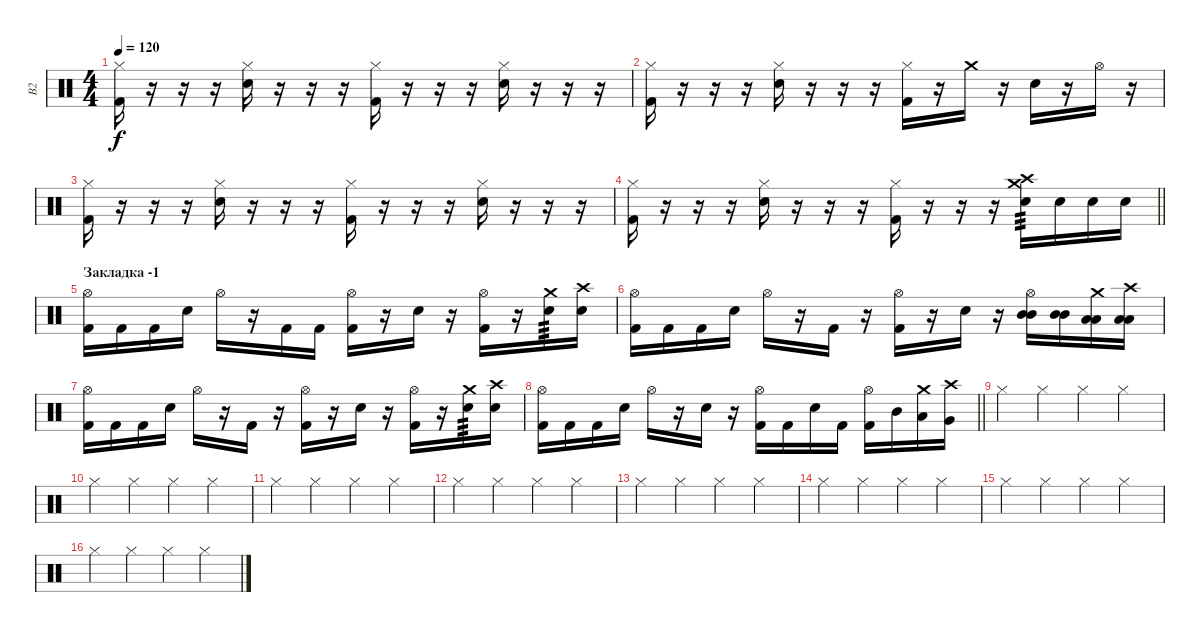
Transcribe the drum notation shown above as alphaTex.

\track ("В2" "В2") {instrument percussion}
\staff {score}
\articulation defaults
\ts (4 4)
\tempo 120
\clef neutral
\ks c
("Hi-Hat (closed)" "Kick (hit) 2").16{dy f} r.16 r.16 r.16 ("Hi-Hat (closed)" "Snare (hit) 2").16 r.16 r.16 r.16 ("Hi-Hat (closed)" "Kick (hit) 2").16 r.16 r.16 r.16 ("Hi-Hat (closed)" "Snare (hit) 2").16 r.16 r.16 r.16 |
("Hi-Hat (closed)" "Kick (hit) 2").16 r.16 r.16 r.16 ("Hi-Hat (closed)" "Snare (hit) 2").16 r.16 r.16 r.16 ("Hi-Hat (closed)" "Kick (hit) 2").16 r.16 "Crash medium (hit)".16 r.16 "Snare (hit) 2".16 r.16 "Hi-Hat (open)".16 r.16 |
("Hi-Hat (closed)" "Kick (hit) 2").16 r.16 r.16 r.16 ("Hi-Hat (closed)" "Snare (hit) 2").16 r.16 r.16 r.16 ("Hi-Hat (closed)" "Kick (hit) 2").16 r.16 r.16 r.16 ("Hi-Hat (closed)" "Snare (hit) 2").16 r.16 r.16 r.16 |
\barLineRight lightlight
("Hi-Hat (closed)" "Kick (hit) 2").16 r.16 r.16 r.16 ("Hi-Hat (closed)" "Snare (hit) 2").16 r.16 r.16 r.16 ("Hi-Hat (closed)" "Kick (hit) 2").16 r.16 r.16 r.16 ("Crash medium (hit)" "Crash high (hit)" "Snare (hit) 2").16{tp 3} "Snare (hit) 2".16 "Snare (hit) 2".16 "Snare (hit) 2".16 |
\section ("" "Закладка -1")
("Hi-Hat (open)" "Kick (hit) 2").16 "Kick (hit) 2".16 "Kick (hit) 2".16 "Snare (hit) 2".16 "Hi-Hat (open)".16 r.16 "Kick (hit) 2".16 "Kick (hit) 2".16 ("Hi-Hat (open)" "Kick (hit) 2").16 r.16 "Snare (hit) 2".16 r.16 ("Hi-Hat (open)" "Kick (hit) 2").16 r.16 ("Crash medium (hit)" "Snare (hit) 2").16{tp 3} ("Crash high (hit)" "Snare (hit) 2").16 |
("Hi-Hat (open)" "Kick (hit) 2").16 "Kick (hit) 2".16 "Kick (hit) 2".16 "Snare (hit) 2".16 "Hi-Hat (open)".16 r.16 "Kick (hit) 2".16 r.16 ("Hi-Hat (open)" "Kick (hit) 2").16 r.16 "Snare (hit) 2".16 r.16 ("Hi-Hat (open)" "Mid Tom (hit)" "Mid Tom (hit)").16 ("Mid Tom (hit)" "Mid Tom (hit)").16 ("Crash medium (hit)" "Low Tom (hit)" "Low Tom (hit)").16 ("Crash high (hit)" "Low Tom (hit)" "Low Tom (hit)").16 |
("Hi-Hat (open)" "Kick (hit) 2").16 "Kick (hit) 2".16 "Kick (hit) 2".16 "Snare (hit) 2".16 "Hi-Hat (open)".16 r.16 "Kick (hit) 2".16 r.16 ("Hi-Hat (open)" "Kick (hit) 2").16 r.16 "Snare (hit) 2".16 r.16 ("Hi-Hat (open)" "Kick (hit) 2").16 r.16 ("Crash medium (hit)" "Snare (hit) 2").16{tp 3} ("Crash high (hit)" "Snare (hit) 2").16 |
\barLineRight lightlight
("Hi-Hat (open)" "Kick (hit) 2").16 "Kick (hit) 2".16 "Kick (hit) 2".16 "Snare (hit) 2".16 "Hi-Hat (open)".16 r.16 "Snare (hit) 2".16 r.16 ("Hi-Hat (open)" "Kick (hit) 2").16 "Kick (hit) 2".16 "Snare (hit) 2".16 "Kick (hit) 2".16 ("Hi-Hat (open)" "Kick (hit) 2").16 "Mid Tom (hit)".16 ("Crash medium (hit)" "Low Tom (hit)").16 ("Crash high (hit)" "Very Low Tom (hit)").16 |
"Hi-Hat (closed)".4 "Hi-Hat (closed)".4 "Hi-Hat (closed)".4 "Hi-Hat (closed)".4 |
"Hi-Hat (closed)".4 "Hi-Hat (closed)".4 "Hi-Hat (closed)".4 "Hi-Hat (closed)".4 |
"Hi-Hat (closed)".4 "Hi-Hat (closed)".4 "Hi-Hat (closed)".4 "Hi-Hat (closed)".4 |
"Hi-Hat (closed)".4 "Hi-Hat (closed)".4 "Hi-Hat (closed)".4 "Hi-Hat (closed)".4 |
"Hi-Hat (closed)".4 "Hi-Hat (closed)".4 "Hi-Hat (closed)".4 "Hi-Hat (closed)".4 |
"Hi-Hat (closed)".4 "Hi-Hat (closed)".4 "Hi-Hat (closed)".4 "Hi-Hat (closed)".4 |
"Hi-Hat (closed)".4 "Hi-Hat (closed)".4 "Hi-Hat (closed)".4 "Hi-Hat (closed)".4 |
"Hi-Hat (closed)".4 "Hi-Hat (closed)".4 "Hi-Hat (closed)".4 "Hi-Hat (closed)".4
